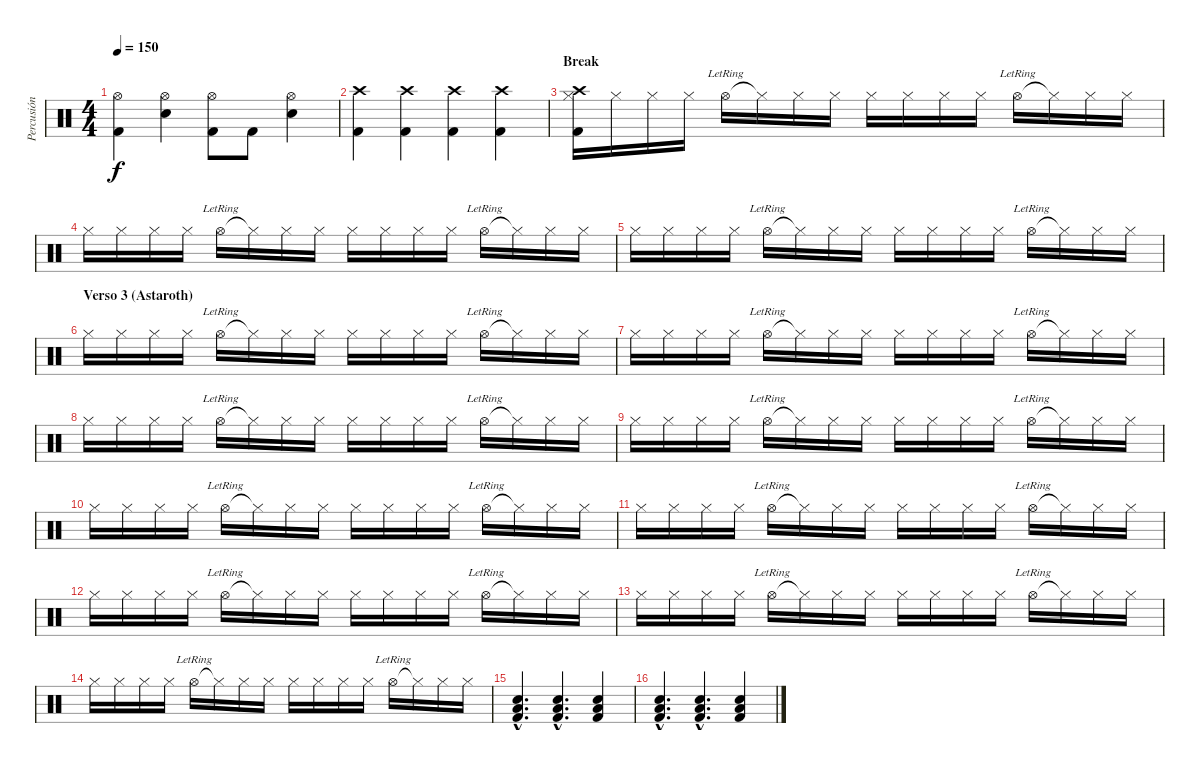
\track ("Percusión" "Percusión") {instrument percussion}
\staff {score}
\articulation defaults
\ts (4 4)
\tempo 150
\clef neutral
\ks c
("Hi-Hat (open)" "Kick (hit) 2").4{dy f} ("Hi-Hat (open)" "Snare (hit) 2").4 ("Hi-Hat (open)" "Kick (hit) 2").8 "Kick (hit) 2".8 ("Hi-Hat (open)" "Snare (hit) 2").4 |
("Crash high (hit)" "Kick (hit) 2").4 ("Crash high (hit)" "Kick (hit) 2").4 ("Crash high (hit)" "Kick (hit) 2").4 ("Crash high (hit)" "Kick (hit) 2").4 |
\section ("" "Break")
("Crash high (hit)" "Hi-Hat (closed)" "Kick (hit) 2").16 "Hi-Hat (closed)".16 "Hi-Hat (closed)".16 "Hi-Hat (closed)".16 "Hi-Hat (open)"{lr}.16 "Hi-Hat (closed)"{t}.16 "Hi-Hat (closed)".16 "Hi-Hat (closed)".16 "Hi-Hat (closed)".16 "Hi-Hat (closed)".16 "Hi-Hat (closed)".16 "Hi-Hat (closed)".16 "Hi-Hat (open)"{lr}.16 "Hi-Hat (closed)"{t}.16 "Hi-Hat (closed)".16 "Hi-Hat (closed)".16 |
"Hi-Hat (closed)".16 "Hi-Hat (closed)".16 "Hi-Hat (closed)".16 "Hi-Hat (closed)".16 "Hi-Hat (open)"{lr}.16 "Hi-Hat (closed)"{t}.16 "Hi-Hat (closed)".16 "Hi-Hat (closed)".16 "Hi-Hat (closed)".16 "Hi-Hat (closed)".16 "Hi-Hat (closed)".16 "Hi-Hat (closed)".16 "Hi-Hat (open)"{lr}.16 "Hi-Hat (closed)"{t}.16 "Hi-Hat (closed)".16 "Hi-Hat (closed)".16 |
"Hi-Hat (closed)".16 "Hi-Hat (closed)".16 "Hi-Hat (closed)".16 "Hi-Hat (closed)".16 "Hi-Hat (open)"{lr}.16 "Hi-Hat (closed)"{t}.16 "Hi-Hat (closed)".16 "Hi-Hat (closed)".16 "Hi-Hat (closed)".16 "Hi-Hat (closed)".16 "Hi-Hat (closed)".16 "Hi-Hat (closed)".16 "Hi-Hat (open)"{lr}.16 "Hi-Hat (closed)"{t}.16 "Hi-Hat (closed)".16 "Hi-Hat (closed)".16 |
\section ("" "Verso 3 (Astaroth)")
"Hi-Hat (closed)".16 "Hi-Hat (closed)".16 "Hi-Hat (closed)".16 "Hi-Hat (closed)".16 "Hi-Hat (open)"{lr}.16 "Hi-Hat (closed)"{t}.16 "Hi-Hat (closed)".16 "Hi-Hat (closed)".16 "Hi-Hat (closed)".16 "Hi-Hat (closed)".16 "Hi-Hat (closed)".16 "Hi-Hat (closed)".16 "Hi-Hat (open)"{lr}.16 "Hi-Hat (closed)"{t}.16 "Hi-Hat (closed)".16 "Hi-Hat (closed)".16 |
"Hi-Hat (closed)".16 "Hi-Hat (closed)".16 "Hi-Hat (closed)".16 "Hi-Hat (closed)".16 "Hi-Hat (open)"{lr}.16 "Hi-Hat (closed)"{t}.16 "Hi-Hat (closed)".16 "Hi-Hat (closed)".16 "Hi-Hat (closed)".16 "Hi-Hat (closed)".16 "Hi-Hat (closed)".16 "Hi-Hat (closed)".16 "Hi-Hat (open)"{lr}.16 "Hi-Hat (closed)"{t}.16 "Hi-Hat (closed)".16 "Hi-Hat (closed)".16 |
"Hi-Hat (closed)".16 "Hi-Hat (closed)".16 "Hi-Hat (closed)".16 "Hi-Hat (closed)".16 "Hi-Hat (open)"{lr}.16 "Hi-Hat (closed)"{t}.16 "Hi-Hat (closed)".16 "Hi-Hat (closed)".16 "Hi-Hat (closed)".16 "Hi-Hat (closed)".16 "Hi-Hat (closed)".16 "Hi-Hat (closed)".16 "Hi-Hat (open)"{lr}.16 "Hi-Hat (closed)"{t}.16 "Hi-Hat (closed)".16 "Hi-Hat (closed)".16 |
"Hi-Hat (closed)".16 "Hi-Hat (closed)".16 "Hi-Hat (closed)".16 "Hi-Hat (closed)".16 "Hi-Hat (open)"{lr}.16 "Hi-Hat (closed)"{t}.16 "Hi-Hat (closed)".16 "Hi-Hat (closed)".16 "Hi-Hat (closed)".16 "Hi-Hat (closed)".16 "Hi-Hat (closed)".16 "Hi-Hat (closed)".16 "Hi-Hat (open)"{lr}.16 "Hi-Hat (closed)"{t}.16 "Hi-Hat (closed)".16 "Hi-Hat (closed)".16 |
"Hi-Hat (closed)".16 "Hi-Hat (closed)".16 "Hi-Hat (closed)".16 "Hi-Hat (closed)".16 "Hi-Hat (open)"{lr}.16 "Hi-Hat (closed)"{t}.16 "Hi-Hat (closed)".16 "Hi-Hat (closed)".16 "Hi-Hat (closed)".16 "Hi-Hat (closed)".16 "Hi-Hat (closed)".16 "Hi-Hat (closed)".16 "Hi-Hat (open)"{lr}.16 "Hi-Hat (closed)"{t}.16 "Hi-Hat (closed)".16 "Hi-Hat (closed)".16 |
"Hi-Hat (closed)".16 "Hi-Hat (closed)".16 "Hi-Hat (closed)".16 "Hi-Hat (closed)".16 "Hi-Hat (open)"{lr}.16 "Hi-Hat (closed)"{t}.16 "Hi-Hat (closed)".16 "Hi-Hat (closed)".16 "Hi-Hat (closed)".16 "Hi-Hat (closed)".16 "Hi-Hat (closed)".16 "Hi-Hat (closed)".16 "Hi-Hat (open)"{lr}.16 "Hi-Hat (closed)"{t}.16 "Hi-Hat (closed)".16 "Hi-Hat (closed)".16 |
"Hi-Hat (closed)".16 "Hi-Hat (closed)".16 "Hi-Hat (closed)".16 "Hi-Hat (closed)".16 "Hi-Hat (open)"{lr}.16 "Hi-Hat (closed)"{t}.16 "Hi-Hat (closed)".16 "Hi-Hat (closed)".16 "Hi-Hat (closed)".16 "Hi-Hat (closed)".16 "Hi-Hat (closed)".16 "Hi-Hat (closed)".16 "Hi-Hat (open)"{lr}.16 "Hi-Hat (closed)"{t}.16 "Hi-Hat (closed)".16 "Hi-Hat (closed)".16 |
"Hi-Hat (closed)".16 "Hi-Hat (closed)".16 "Hi-Hat (closed)".16 "Hi-Hat (closed)".16 "Hi-Hat (open)"{lr}.16 "Hi-Hat (closed)"{t}.16 "Hi-Hat (closed)".16 "Hi-Hat (closed)".16 "Hi-Hat (closed)".16 "Hi-Hat (closed)".16 "Hi-Hat (closed)".16 "Hi-Hat (closed)".16 "Hi-Hat (open)"{lr}.16 "Hi-Hat (closed)"{t}.16 "Hi-Hat (closed)".16 "Hi-Hat (closed)".16 |
"Hi-Hat (closed)".16 "Hi-Hat (closed)".16 "Hi-Hat (closed)".16 "Hi-Hat (closed)".16 "Hi-Hat (open)"{lr}.16 "Hi-Hat (closed)"{t}.16 "Hi-Hat (closed)".16 "Hi-Hat (closed)".16 "Hi-Hat (closed)".16 "Hi-Hat (closed)".16 "Hi-Hat (closed)".16 "Hi-Hat (closed)".16 "Hi-Hat (open)"{lr}.16 "Hi-Hat (closed)"{t}.16 "Hi-Hat (closed)".16 "Hi-Hat (closed)".16 |
("Snare (hit) 2"{hac} "Low Floor Tom (hit)"{hac} "Kick (hit) 2"{hac}).4{d} ("Snare (hit) 2"{hac} "Low Floor Tom (hit)"{hac} "Kick (hit) 2"{hac}).4{d} ("Snare (hit) 2" "Low Floor Tom (hit)" "Kick (hit) 2").4 |
("Snare (hit) 2"{hac} "Low Floor Tom (hit)"{hac} "Kick (hit) 2"{hac}).4{d} ("Snare (hit) 2"{hac} "Low Floor Tom (hit)"{hac} "Kick (hit) 2"{hac}).4{d} ("Snare (hit) 2" "Low Floor Tom (hit)" "Kick (hit) 2").4
